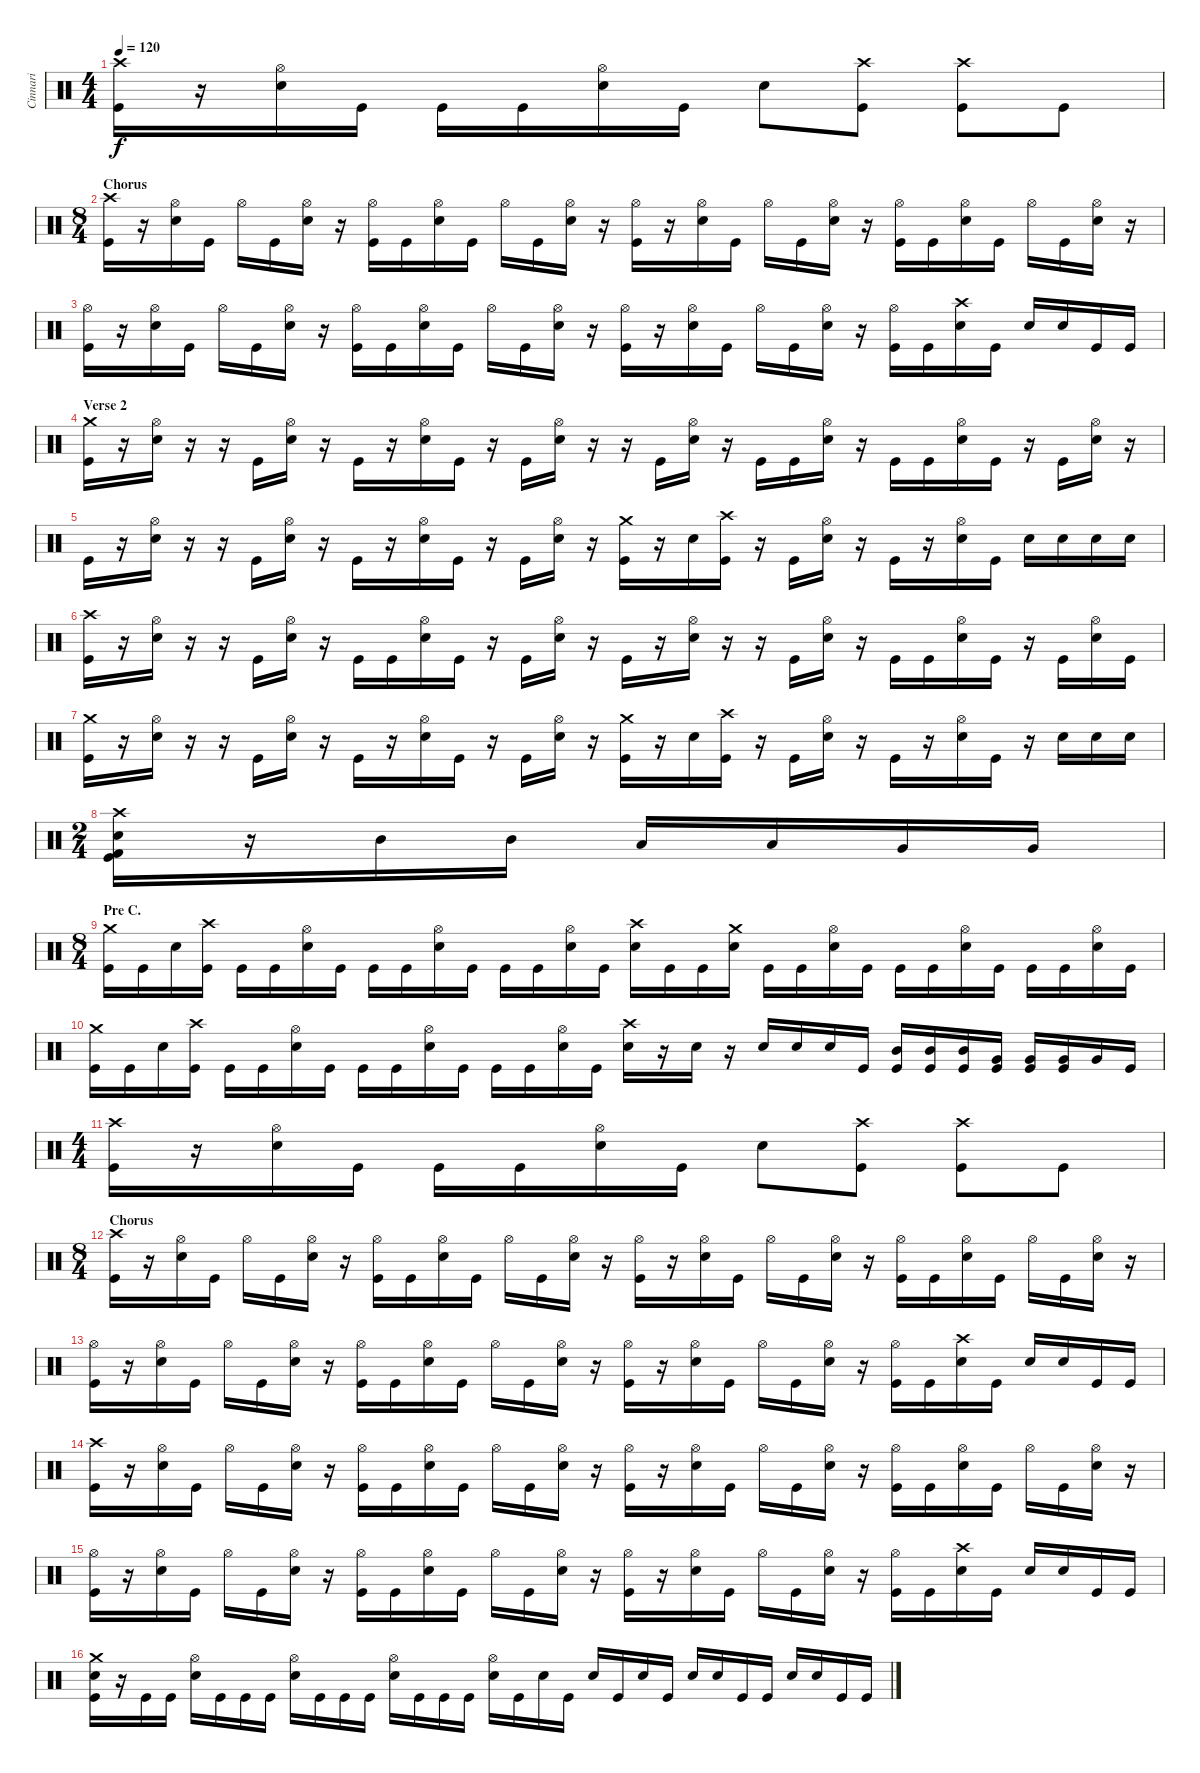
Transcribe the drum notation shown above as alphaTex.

\track ("Cinnari" "Cinnari") {instrument percussion}
\staff {score}
\articulation defaults
\ts (4 4)
\tempo 120
\clef neutral
\ks c
("Crash high (hit)" "Kick (hit)").16{dy f} r.16 ("Hi-Hat (open)" "Electric Snare (hit)").16 "Kick (hit)".16 "Kick (hit)".16 "Kick (hit)".16 ("Hi-Hat (open)" "Electric Snare (hit)").16 "Kick (hit)".16 "Electric Snare (hit)".8 ("Crash high (hit)" "Kick (hit)").8 ("Crash high (hit)" "Kick (hit)").8 "Kick (hit)".8 |
\ts (8 4)
\section ("" "Chorus")
("Crash high (hit)" "Kick (hit)").16 r.16 ("Hi-Hat (open)" "Electric Snare (hit)").16 "Kick (hit)".16 "Hi-Hat (open)".16 "Kick (hit)".16 ("Hi-Hat (open)" "Electric Snare (hit)").16 r.16 ("Hi-Hat (open)" "Kick (hit)").16 "Kick (hit)".16 ("Hi-Hat (open)" "Electric Snare (hit)").16 "Kick (hit)".16 "Hi-Hat (open)".16 "Kick (hit)".16 ("Hi-Hat (open)" "Electric Snare (hit)").16 r.16 ("Hi-Hat (open)" "Kick (hit)").16 r.16 ("Hi-Hat (open)" "Electric Snare (hit)").16 "Kick (hit)".16 "Hi-Hat (open)".16 "Kick (hit)".16 ("Hi-Hat (open)" "Electric Snare (hit)").16 r.16 ("Hi-Hat (open)" "Kick (hit)").16 "Kick (hit)".16 ("Hi-Hat (open)" "Electric Snare (hit)").16 "Kick (hit)".16 "Hi-Hat (open)".16 "Kick (hit)".16 ("Hi-Hat (open)" "Electric Snare (hit)").16 r.16 |
("Hi-Hat (open)" "Kick (hit)").16 r.16 ("Hi-Hat (open)" "Electric Snare (hit)").16 "Kick (hit)".16 "Hi-Hat (open)".16 "Kick (hit)".16 ("Hi-Hat (open)" "Electric Snare (hit)").16 r.16 ("Hi-Hat (open)" "Kick (hit)").16 "Kick (hit)".16 ("Hi-Hat (open)" "Electric Snare (hit)").16 "Kick (hit)".16 "Hi-Hat (open)".16 "Kick (hit)".16 ("Hi-Hat (open)" "Electric Snare (hit)").16 r.16 ("Hi-Hat (open)" "Kick (hit)").16 r.16 ("Hi-Hat (open)" "Electric Snare (hit)").16 "Kick (hit)".16 "Hi-Hat (open)".16 "Kick (hit)".16 ("Hi-Hat (open)" "Electric Snare (hit)").16 r.16 ("Hi-Hat (open)" "Kick (hit)").16 "Kick (hit)".16 ("Crash high (hit)" "Electric Snare (hit)").16 "Kick (hit)".16 "Electric Snare (hit)".16 "Electric Snare (hit)".16 "Kick (hit)".16 "Kick (hit)".16 |
\section ("" "Verse 2")
("Crash medium (hit)" "Kick (hit)").16 r.16 ("Hi-Hat (open)" "Electric Snare (hit)").16 r.16 r.16 "Kick (hit)".16 ("Hi-Hat (open)" "Electric Snare (hit)").16 r.16 "Kick (hit)".16 r.16 ("Hi-Hat (open)" "Electric Snare (hit)").16 "Kick (hit)".16 r.16 "Kick (hit)".16 ("Hi-Hat (open)" "Electric Snare (hit)").16 r.16 r.16 "Kick (hit)".16 ("Hi-Hat (open)" "Electric Snare (hit)").16 r.16 "Kick (hit)".16 "Kick (hit)".16 ("Hi-Hat (open)" "Electric Snare (hit)").16 r.16 "Kick (hit)".16 "Kick (hit)".16 ("Hi-Hat (open)" "Electric Snare (hit)").16 "Kick (hit)".16 r.16 "Kick (hit)".16 ("Hi-Hat (open)" "Electric Snare (hit)").16 r.16 |
"Kick (hit)".16 r.16 ("Hi-Hat (open)" "Electric Snare (hit)").16 r.16 r.16 "Kick (hit)".16 ("Hi-Hat (open)" "Electric Snare (hit)").16 r.16 "Kick (hit)".16 r.16 ("Hi-Hat (open)" "Electric Snare (hit)").16 "Kick (hit)".16 r.16 "Kick (hit)".16 ("Hi-Hat (open)" "Electric Snare (hit)").16 r.16 ("Crash medium (hit)" "Kick (hit)").16 r.16 "Electric Snare (hit)".16 ("Crash high (hit)" "Kick (hit)").16 r.16 "Kick (hit)".16 ("Hi-Hat (open)" "Electric Snare (hit)").16 r.16 "Kick (hit)".16 r.16 ("Hi-Hat (open)" "Electric Snare (hit)").16 "Kick (hit)".16 "Electric Snare (hit)".16 "Electric Snare (hit)".16 "Electric Snare (hit)".16 "Electric Snare (hit)".16 |
("Crash high (hit)" "Kick (hit)").16 r.16 ("Hi-Hat (open)" "Electric Snare (hit)").16 r.16 r.16 "Kick (hit)".16 ("Hi-Hat (open)" "Electric Snare (hit)").16 r.16 "Kick (hit)".16 "Kick (hit)".16 ("Hi-Hat (open)" "Electric Snare (hit)").16 "Kick (hit)".16 r.16 "Kick (hit)".16 ("Hi-Hat (open)" "Electric Snare (hit)").16 r.16 "Kick (hit)".16 r.16 ("Hi-Hat (open)" "Electric Snare (hit)").16 r.16 r.16 "Kick (hit)".16 ("Hi-Hat (open)" "Electric Snare (hit)").16 r.16 "Kick (hit)".16 "Kick (hit)".16 ("Hi-Hat (open)" "Electric Snare (hit)").16 "Kick (hit)".16 r.16 "Kick (hit)".16 ("Hi-Hat (open)" "Electric Snare (hit)").16 "Kick (hit)".16 |
("Crash medium (hit)" "Kick (hit)").16 r.16 ("Hi-Hat (open)" "Electric Snare (hit)").16 r.16 r.16 "Kick (hit)".16 ("Hi-Hat (open)" "Electric Snare (hit)").16 r.16 "Kick (hit)".16 r.16 ("Hi-Hat (open)" "Electric Snare (hit)").16 "Kick (hit)".16 r.16 "Kick (hit)".16 ("Hi-Hat (open)" "Electric Snare (hit)").16 r.16 ("Crash medium (hit)" "Kick (hit)").16 r.16 "Electric Snare (hit)".16 ("Crash high (hit)" "Kick (hit)").16 r.16 "Kick (hit)".16 ("Hi-Hat (open)" "Electric Snare (hit)").16 r.16 "Kick (hit)".16 r.16 ("Hi-Hat (open)" "Electric Snare (hit)").16 "Kick (hit)".16 r.16 "Electric Snare (hit)".16 "Electric Snare (hit)".16 "Electric Snare (hit)".16 |
\ts (2 4)
("Crash high (hit)" "Kick (hit) 2" "Electric Snare (hit)" "Kick (hit)").16 r.16 "Mid Tom (hit)".16 "Mid Tom (hit)".16 "Low Tom (hit)".16 "Low Tom (hit)".16 "Very Low Tom (hit)".16 "Very Low Tom (hit)".16 |
\ts (8 4)
\section ("" "Pre C.")
("Crash medium (hit)" "Kick (hit)").16 "Kick (hit)".16 "Electric Snare (hit)".16 ("Crash high (hit)" "Kick (hit)").16 "Kick (hit)".16 "Kick (hit)".16 ("Hi-Hat (open)" "Electric Snare (hit)").16 "Kick (hit)".16 "Kick (hit)".16 "Kick (hit)".16 ("Hi-Hat (open)" "Electric Snare (hit)").16 "Kick (hit)".16 "Kick (hit)".16 "Kick (hit)".16 ("Hi-Hat (open)" "Electric Snare (hit)").16 "Kick (hit)".16 ("Crash high (hit)" "Electric Snare (hit)").16 "Kick (hit)".16 "Kick (hit)".16 ("Crash medium (hit)" "Electric Snare (hit)").16 "Kick (hit)".16 "Kick (hit)".16 ("Hi-Hat (open)" "Electric Snare (hit)").16 "Kick (hit)".16 "Kick (hit)".16 "Kick (hit)".16 ("Hi-Hat (open)" "Electric Snare (hit)").16 "Kick (hit)".16 "Kick (hit)".16 "Kick (hit)".16 ("Hi-Hat (open)" "Electric Snare (hit)").16 "Kick (hit)".16 |
("Crash medium (hit)" "Kick (hit)").16 "Kick (hit)".16 "Electric Snare (hit)".16 ("Crash high (hit)" "Kick (hit)").16 "Kick (hit)".16 "Kick (hit)".16 ("Hi-Hat (open)" "Electric Snare (hit)").16 "Kick (hit)".16 "Kick (hit)".16 "Kick (hit)".16 ("Hi-Hat (open)" "Electric Snare (hit)").16 "Kick (hit)".16 "Kick (hit)".16 "Kick (hit)".16 ("Hi-Hat (open)" "Electric Snare (hit)").16 "Kick (hit)".16 ("Crash high (hit)" "Electric Snare (hit)").16 r.16 "Electric Snare (hit)".16 r.16 "Electric Snare (hit)".16 "Electric Snare (hit)".16 "Electric Snare (hit)".16 "Kick (hit)".16 ("Mid Tom (hit)" "Kick (hit)").16 ("Mid Tom (hit)" "Kick (hit)").16 ("Mid Tom (hit)" "Kick (hit)").16 ("Very Low Tom (hit)" "Kick (hit)").16 ("Very Low Tom (hit)" "Kick (hit)").16 ("Very Low Tom (hit)" "Kick (hit)").16 "Very Low Tom (hit)".16 "Kick (hit)".16 |
\ts (4 4)
("Crash high (hit)" "Kick (hit)").16 r.16 ("Hi-Hat (open)" "Electric Snare (hit)").16 "Kick (hit)".16 "Kick (hit)".16 "Kick (hit)".16 ("Hi-Hat (open)" "Electric Snare (hit)").16 "Kick (hit)".16 "Electric Snare (hit)".8 ("Crash high (hit)" "Kick (hit)").8 ("Crash high (hit)" "Kick (hit)").8 "Kick (hit)".8 |
\ts (8 4)
\section ("" "Chorus")
("Crash high (hit)" "Kick (hit)").16 r.16 ("Hi-Hat (open)" "Electric Snare (hit)").16 "Kick (hit)".16 "Hi-Hat (open)".16 "Kick (hit)".16 ("Hi-Hat (open)" "Electric Snare (hit)").16 r.16 ("Hi-Hat (open)" "Kick (hit)").16 "Kick (hit)".16 ("Hi-Hat (open)" "Electric Snare (hit)").16 "Kick (hit)".16 "Hi-Hat (open)".16 "Kick (hit)".16 ("Hi-Hat (open)" "Electric Snare (hit)").16 r.16 ("Hi-Hat (open)" "Kick (hit)").16 r.16 ("Hi-Hat (open)" "Electric Snare (hit)").16 "Kick (hit)".16 "Hi-Hat (open)".16 "Kick (hit)".16 ("Hi-Hat (open)" "Electric Snare (hit)").16 r.16 ("Hi-Hat (open)" "Kick (hit)").16 "Kick (hit)".16 ("Hi-Hat (open)" "Electric Snare (hit)").16 "Kick (hit)".16 "Hi-Hat (open)".16 "Kick (hit)".16 ("Hi-Hat (open)" "Electric Snare (hit)").16 r.16 |
("Hi-Hat (open)" "Kick (hit)").16 r.16 ("Hi-Hat (open)" "Electric Snare (hit)").16 "Kick (hit)".16 "Hi-Hat (open)".16 "Kick (hit)".16 ("Hi-Hat (open)" "Electric Snare (hit)").16 r.16 ("Hi-Hat (open)" "Kick (hit)").16 "Kick (hit)".16 ("Hi-Hat (open)" "Electric Snare (hit)").16 "Kick (hit)".16 "Hi-Hat (open)".16 "Kick (hit)".16 ("Hi-Hat (open)" "Electric Snare (hit)").16 r.16 ("Hi-Hat (open)" "Kick (hit)").16 r.16 ("Hi-Hat (open)" "Electric Snare (hit)").16 "Kick (hit)".16 "Hi-Hat (open)".16 "Kick (hit)".16 ("Hi-Hat (open)" "Electric Snare (hit)").16 r.16 ("Hi-Hat (open)" "Kick (hit)").16 "Kick (hit)".16 ("Crash high (hit)" "Electric Snare (hit)").16 "Kick (hit)".16 "Electric Snare (hit)".16 "Electric Snare (hit)".16 "Kick (hit)".16 "Kick (hit)".16 |
("Crash high (hit)" "Kick (hit)").16 r.16 ("Hi-Hat (open)" "Electric Snare (hit)").16 "Kick (hit)".16 "Hi-Hat (open)".16 "Kick (hit)".16 ("Hi-Hat (open)" "Electric Snare (hit)").16 r.16 ("Hi-Hat (open)" "Kick (hit)").16 "Kick (hit)".16 ("Hi-Hat (open)" "Electric Snare (hit)").16 "Kick (hit)".16 "Hi-Hat (open)".16 "Kick (hit)".16 ("Hi-Hat (open)" "Electric Snare (hit)").16 r.16 ("Hi-Hat (open)" "Kick (hit)").16 r.16 ("Hi-Hat (open)" "Electric Snare (hit)").16 "Kick (hit)".16 "Hi-Hat (open)".16 "Kick (hit)".16 ("Hi-Hat (open)" "Electric Snare (hit)").16 r.16 ("Hi-Hat (open)" "Kick (hit)").16 "Kick (hit)".16 ("Hi-Hat (open)" "Electric Snare (hit)").16 "Kick (hit)".16 "Hi-Hat (open)".16 "Kick (hit)".16 ("Hi-Hat (open)" "Electric Snare (hit)").16 r.16 |
("Hi-Hat (open)" "Kick (hit)").16 r.16 ("Hi-Hat (open)" "Electric Snare (hit)").16 "Kick (hit)".16 "Hi-Hat (open)".16 "Kick (hit)".16 ("Hi-Hat (open)" "Electric Snare (hit)").16 r.16 ("Hi-Hat (open)" "Kick (hit)").16 "Kick (hit)".16 ("Hi-Hat (open)" "Electric Snare (hit)").16 "Kick (hit)".16 "Hi-Hat (open)".16 "Kick (hit)".16 ("Hi-Hat (open)" "Electric Snare (hit)").16 r.16 ("Hi-Hat (open)" "Kick (hit)").16 r.16 ("Hi-Hat (open)" "Electric Snare (hit)").16 "Kick (hit)".16 "Hi-Hat (open)".16 "Kick (hit)".16 ("Hi-Hat (open)" "Electric Snare (hit)").16 r.16 ("Hi-Hat (open)" "Kick (hit)").16 "Kick (hit)".16 ("Crash high (hit)" "Electric Snare (hit)").16 "Kick (hit)".16 "Electric Snare (hit)".16 "Electric Snare (hit)".16 "Kick (hit)".16 "Kick (hit)".16 |
("Crash medium (hit)" "Electric Snare (hit)" "Kick (hit)").16 r.16 "Kick (hit)".16 "Kick (hit)".16 ("Hi-Hat (open)" "Electric Snare (hit)").16 "Kick (hit)".16 "Kick (hit)".16 "Kick (hit)".16 ("Hi-Hat (open)" "Electric Snare (hit)").16 "Kick (hit)".16 "Kick (hit)".16 "Kick (hit)".16 ("Hi-Hat (open)" "Electric Snare (hit)").16 "Kick (hit)".16 "Kick (hit)".16 "Kick (hit)".16 ("Hi-Hat (open)" "Electric Snare (hit)").16 "Kick (hit)".16 "Electric Snare (hit)".16 "Kick (hit)".16 "Electric Snare (hit)".16 "Kick (hit)".16 "Electric Snare (hit)".16 "Kick (hit)".16 "Electric Snare (hit)".16 "Electric Snare (hit)".16 "Kick (hit)".16 "Kick (hit)".16 "Electric Snare (hit)".16 "Electric Snare (hit)".16 "Kick (hit)".16 "Kick (hit)".16
